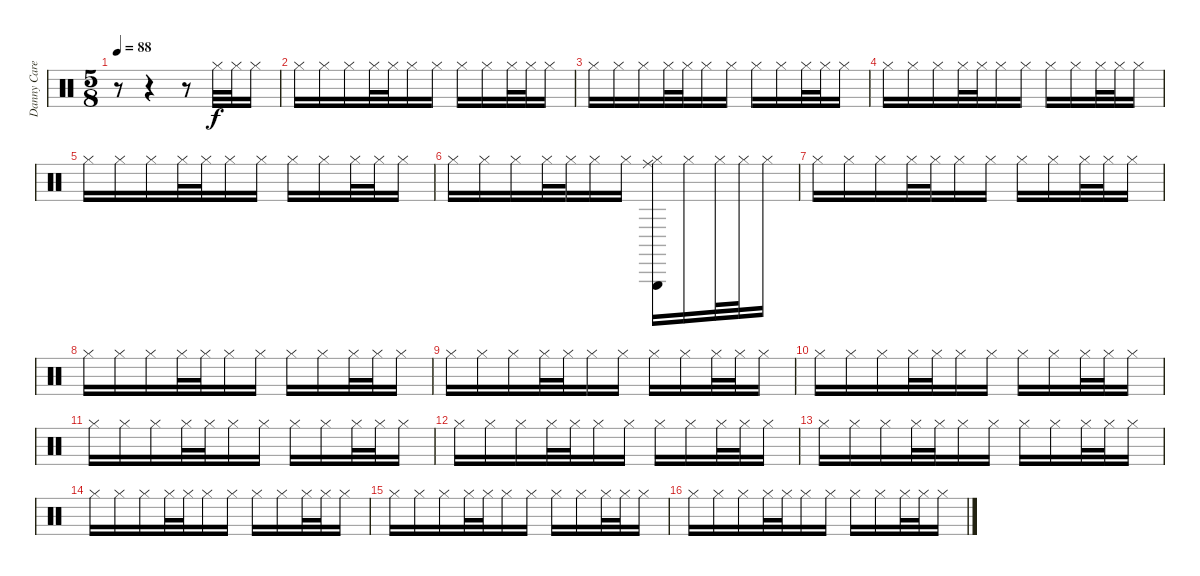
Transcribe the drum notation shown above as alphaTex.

\track ("Danny Carey" "Danny Care") {instrument percussion}
\staff {score}
\articulation defaults
\ts (5 8)
\tempo 88
\clef neutral
\ks c
r.8{dy f} r.4 r.8 "Hi-Hat (closed)".32 "Hi-Hat (closed)".32 "Hi-Hat (closed)".16 |
"Hi-Hat (closed)".16 "Hi-Hat (closed)".16 "Hi-Hat (closed)".16 "Hi-Hat (closed)".32 "Hi-Hat (closed)".32 "Hi-Hat (closed)".16 "Hi-Hat (closed)".16 "Hi-Hat (closed)".16 "Hi-Hat (closed)".16 "Hi-Hat (closed)".32 "Hi-Hat (closed)".32 "Hi-Hat (closed)".16 |
"Hi-Hat (closed)".16 "Hi-Hat (closed)".16 "Hi-Hat (closed)".16 "Hi-Hat (closed)".32 "Hi-Hat (closed)".32 "Hi-Hat (closed)".16 "Hi-Hat (closed)".16 "Hi-Hat (closed)".16 "Hi-Hat (closed)".16 "Hi-Hat (closed)".32 "Hi-Hat (closed)".32 "Hi-Hat (closed)".16 |
"Hi-Hat (closed)".16 "Hi-Hat (closed)".16 "Hi-Hat (closed)".16 "Hi-Hat (closed)".32 "Hi-Hat (closed)".32 "Hi-Hat (closed)".16 "Hi-Hat (closed)".16 "Hi-Hat (closed)".16 "Hi-Hat (closed)".16 "Hi-Hat (closed)".32 "Hi-Hat (closed)".32 "Hi-Hat (closed)".16 |
"Hi-Hat (closed)".16 "Hi-Hat (closed)".16 "Hi-Hat (closed)".16 "Hi-Hat (closed)".32 "Hi-Hat (closed)".32 "Hi-Hat (closed)".16 "Hi-Hat (closed)".16 "Hi-Hat (closed)".16 "Hi-Hat (closed)".16 "Hi-Hat (closed)".32 "Hi-Hat (closed)".32 "Hi-Hat (closed)".16 |
"Hi-Hat (closed)".16 "Hi-Hat (closed)".16 "Hi-Hat (closed)".16 "Hi-Hat (closed)".32 "Hi-Hat (closed)".32 "Hi-Hat (closed)".16 "Hi-Hat (closed)".16 ("Hi-Hat (closed)" "Triangle (hit)" "Ride (middle)").16 "Hi-Hat (closed)".16 "Hi-Hat (closed)".32 "Hi-Hat (closed)".32 "Hi-Hat (closed)".16 |
"Hi-Hat (closed)".16 "Hi-Hat (closed)".16 "Hi-Hat (closed)".16 "Hi-Hat (closed)".32 "Hi-Hat (closed)".32 "Hi-Hat (closed)".16 "Hi-Hat (closed)".16 "Hi-Hat (closed)".16 "Hi-Hat (closed)".16 "Hi-Hat (closed)".32 "Hi-Hat (closed)".32 "Hi-Hat (closed)".16 |
"Hi-Hat (closed)".16 "Hi-Hat (closed)".16 "Hi-Hat (closed)".16 "Hi-Hat (closed)".32 "Hi-Hat (closed)".32 "Hi-Hat (closed)".16 "Hi-Hat (closed)".16 "Hi-Hat (closed)".16 "Hi-Hat (closed)".16 "Hi-Hat (closed)".32 "Hi-Hat (closed)".32 "Hi-Hat (closed)".16 |
"Hi-Hat (closed)".16 "Hi-Hat (closed)".16 "Hi-Hat (closed)".16 "Hi-Hat (closed)".32 "Hi-Hat (closed)".32 "Hi-Hat (closed)".16 "Hi-Hat (closed)".16 "Hi-Hat (closed)".16 "Hi-Hat (closed)".16 "Hi-Hat (closed)".32 "Hi-Hat (closed)".32 "Hi-Hat (closed)".16 |
"Hi-Hat (closed)".16 "Hi-Hat (closed)".16 "Hi-Hat (closed)".16 "Hi-Hat (closed)".32 "Hi-Hat (closed)".32 "Hi-Hat (closed)".16 "Hi-Hat (closed)".16 "Hi-Hat (closed)".16 "Hi-Hat (closed)".16 "Hi-Hat (closed)".32 "Hi-Hat (closed)".32 "Hi-Hat (closed)".16 |
"Hi-Hat (closed)".16 "Hi-Hat (closed)".16 "Hi-Hat (closed)".16 "Hi-Hat (closed)".32 "Hi-Hat (closed)".32 "Hi-Hat (closed)".16 "Hi-Hat (closed)".16 "Hi-Hat (closed)".16 "Hi-Hat (closed)".16 "Hi-Hat (closed)".32 "Hi-Hat (closed)".32 "Hi-Hat (closed)".16 |
"Hi-Hat (closed)".16 "Hi-Hat (closed)".16 "Hi-Hat (closed)".16 "Hi-Hat (closed)".32 "Hi-Hat (closed)".32 "Hi-Hat (closed)".16 "Hi-Hat (closed)".16 "Hi-Hat (closed)".16 "Hi-Hat (closed)".16 "Hi-Hat (closed)".32 "Hi-Hat (closed)".32 "Hi-Hat (closed)".16 |
"Hi-Hat (closed)".16 "Hi-Hat (closed)".16 "Hi-Hat (closed)".16 "Hi-Hat (closed)".32 "Hi-Hat (closed)".32 "Hi-Hat (closed)".16 "Hi-Hat (closed)".16 "Hi-Hat (closed)".16 "Hi-Hat (closed)".16 "Hi-Hat (closed)".32 "Hi-Hat (closed)".32 "Hi-Hat (closed)".16 |
"Hi-Hat (closed)".16 "Hi-Hat (closed)".16 "Hi-Hat (closed)".16 "Hi-Hat (closed)".32 "Hi-Hat (closed)".32 "Hi-Hat (closed)".16 "Hi-Hat (closed)".16 "Hi-Hat (closed)".16 "Hi-Hat (closed)".16 "Hi-Hat (closed)".32 "Hi-Hat (closed)".32 "Hi-Hat (closed)".16 |
"Hi-Hat (closed)".16 "Hi-Hat (closed)".16 "Hi-Hat (closed)".16 "Hi-Hat (closed)".32 "Hi-Hat (closed)".32 "Hi-Hat (closed)".16 "Hi-Hat (closed)".16 "Hi-Hat (closed)".16 "Hi-Hat (closed)".16 "Hi-Hat (closed)".32 "Hi-Hat (closed)".32 "Hi-Hat (closed)".16 |
"Hi-Hat (closed)".16 "Hi-Hat (closed)".16 "Hi-Hat (closed)".16 "Hi-Hat (closed)".32 "Hi-Hat (closed)".32 "Hi-Hat (closed)".16 "Hi-Hat (closed)".16 "Hi-Hat (closed)".16 "Hi-Hat (closed)".16 "Hi-Hat (closed)".32 "Hi-Hat (closed)".32 "Hi-Hat (closed)".16
